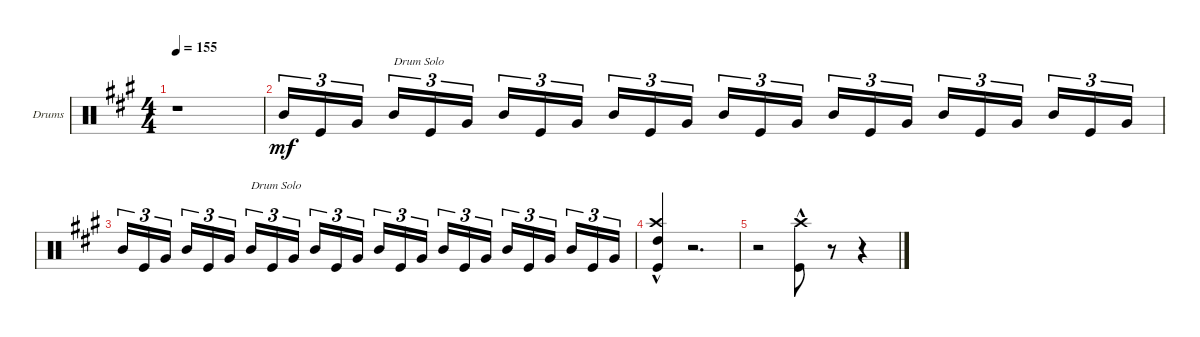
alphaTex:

\defaultSystemsLayout 4
\bracketExtendMode groupsimilarinstruments
\firstSystemTrackNameOrientation horizontal
\otherSystemsTrackNameOrientation horizontal
\track ("John Bonham" "Drums") {instrument percussion}
\staff {score}
\articulation defaults
\ts (4 4)
\tempo 155
\clef neutral
\ks a
r.1{dy mf} |
"Mid Tom (hit)".16{tu (3 2)} "Kick (hit)".16{tu (3 2)} "Very Low Tom (hit)".16{tu (3 2)} "Mid Tom (hit)".16{tu (3 2) txt "Drum Solo"} "Kick (hit)".16{tu (3 2)} "Very Low Tom (hit)".16{tu (3 2)} "Mid Tom (hit)".16{tu (3 2)} "Kick (hit)".16{tu (3 2)} "Very Low Tom (hit)".16{tu (3 2)} "Mid Tom (hit)".16{tu (3 2)} "Kick (hit)".16{tu (3 2)} "Very Low Tom (hit)".16{tu (3 2)} "Mid Tom (hit)".16{tu (3 2)} "Kick (hit)".16{tu (3 2)} "Very Low Tom (hit)".16{tu (3 2)} "Mid Tom (hit)".16{tu (3 2)} "Kick (hit)".16{tu (3 2)} "Very Low Tom (hit)".16{tu (3 2)} "Mid Tom (hit)".16{tu (3 2)} "Kick (hit)".16{tu (3 2)} "Very Low Tom (hit)".16{tu (3 2)} "Mid Tom (hit)".16{tu (3 2)} "Kick (hit)".16{tu (3 2)} "Very Low Tom (hit)".16{tu (3 2)} |
"Mid Tom (hit)".16{tu (3 2)} "Kick (hit)".16{tu (3 2)} "Very Low Tom (hit)".16{tu (3 2)} "Mid Tom (hit)".16{tu (3 2)} "Kick (hit)".16{tu (3 2)} "Very Low Tom (hit)".16{tu (3 2)} "Mid Tom (hit)".16{tu (3 2) txt "Drum Solo"} "Kick (hit)".16{tu (3 2)} "Very Low Tom (hit)".16{tu (3 2)} "Mid Tom (hit)".16{tu (3 2)} "Kick (hit)".16{tu (3 2)} "Very Low Tom (hit)".16{tu (3 2)} "Mid Tom (hit)".16{tu (3 2)} "Kick (hit)".16{tu (3 2)} "Very Low Tom (hit)".16{tu (3 2)} "Mid Tom (hit)".16{tu (3 2)} "Kick (hit)".16{tu (3 2)} "Very Low Tom (hit)".16{tu (3 2)} "Mid Tom (hit)".16{tu (3 2)} "Kick (hit)".16{tu (3 2)} "Very Low Tom (hit)".16{tu (3 2)} "Mid Tom (hit)".16{tu (3 2)} "Kick (hit)".16{tu (3 2)} "Very Low Tom (hit)".16{tu (3 2)} |
("Crash high (hit)"{hac} "Kick (hit)" "High Tom (hit)").4 r.2{d} |
r.2 ("Crash high (hit)"{hac} "Kick (hit)").8 r.8 r.4
